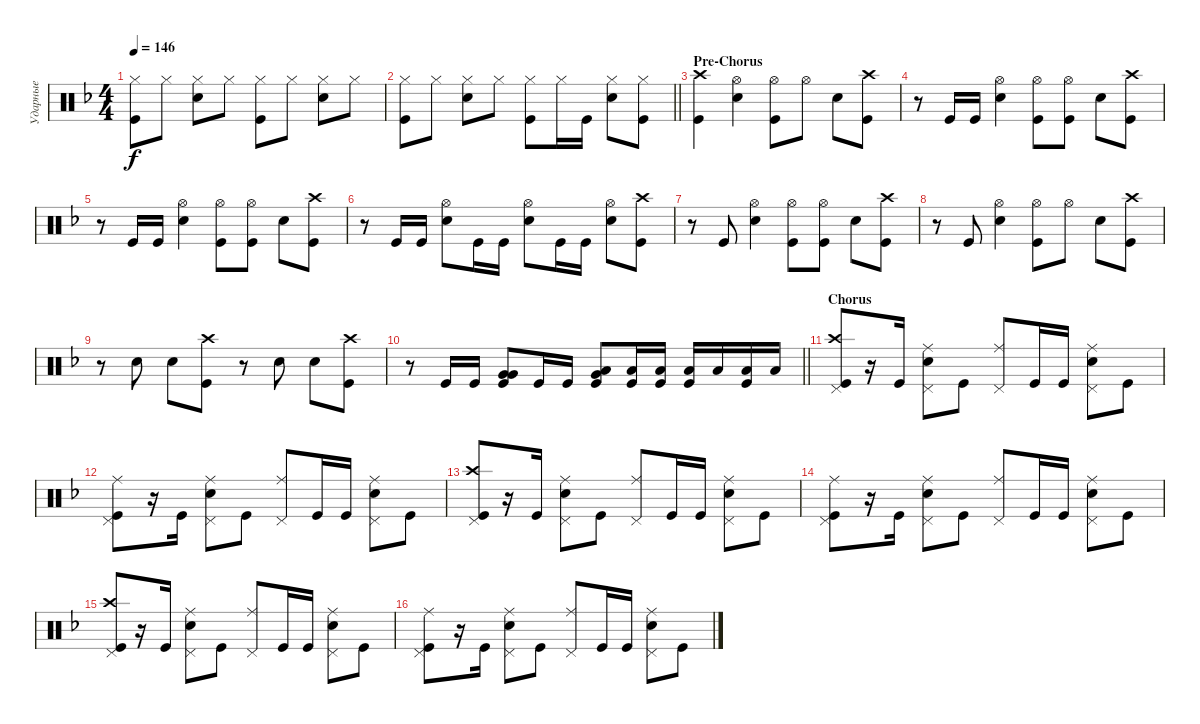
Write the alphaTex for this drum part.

\track ("Ударные" "Ударные") {instrument percussion}
\staff {score}
\articulation defaults
\ts (4 4)
\tempo 146
\clef neutral
\ks dminor
("Kick (hit)" "Hi-Hat (closed)").8{dy f} "Hi-Hat (closed)".8 ("Hi-Hat (closed)" "Snare (hit) 2").8 "Hi-Hat (closed)".8 ("Hi-Hat (closed)" "Kick (hit)").8 "Hi-Hat (closed)".8 ("Hi-Hat (closed)" "Snare (hit) 2").8 "Hi-Hat (closed)".8 |
\barLineRight lightlight
("Kick (hit)" "Hi-Hat (closed)").8 "Hi-Hat (closed)".8 ("Hi-Hat (closed)" "Snare (hit) 2").8 "Hi-Hat (closed)".8 ("Hi-Hat (closed)" "Kick (hit)").8 "Hi-Hat (closed)".16 "Kick (hit)".16 ("Hi-Hat (closed)" "Snare (hit) 2").8 ("Hi-Hat (closed)" "Kick (hit)").8 |
\section ("" "Pre-Chorus")
("Kick (hit)" "Crash high (hit)").4 ("Snare (hit) 2" "Hi-Hat (open)").4 ("Kick (hit)" "Hi-Hat (open)").8 "Hi-Hat (open)".8 "Snare (hit) 2".8 ("Kick (hit)" "Crash high (hit)").8 |
r.8 "Kick (hit)".16 "Kick (hit)".16 ("Snare (hit) 2" "Hi-Hat (open)").4 ("Kick (hit)" "Hi-Hat (open)").8 ("Kick (hit)" "Hi-Hat (open)").8 "Snare (hit) 2".8 ("Kick (hit)" "Crash high (hit)").8 |
r.8 "Kick (hit)".16 "Kick (hit)".16 ("Snare (hit) 2" "Hi-Hat (open)").4 ("Kick (hit)" "Hi-Hat (open)").8 ("Kick (hit)" "Hi-Hat (open)").8 "Snare (hit) 2".8 ("Kick (hit)" "Crash high (hit)").8 |
r.8 "Kick (hit)".16 "Kick (hit)".16 ("Snare (hit) 2" "Hi-Hat (open)").8 "Kick (hit)".16 "Kick (hit)".16 ("Snare (hit) 2" "Hi-Hat (open)").8 "Kick (hit)".16 "Kick (hit)".16 ("Snare (hit) 2" "Hi-Hat (open)").8 ("Kick (hit)" "Crash high (hit)").8 |
r.8 "Kick (hit)".8 ("Snare (hit) 2" "Hi-Hat (open)").4 ("Kick (hit)" "Hi-Hat (open)").8 ("Hi-Hat (open)" "Kick (hit)").8 "Snare (hit) 2".8 ("Kick (hit)" "Crash high (hit)").8 |
r.8 "Kick (hit)".8 ("Snare (hit) 2" "Hi-Hat (open)").4 ("Kick (hit)" "Hi-Hat (open)").8 "Hi-Hat (open)".8 "Snare (hit) 2".8 ("Kick (hit)" "Crash high (hit)").8 |
r.8 "Snare (hit) 2".8 "Snare (hit) 2".8 ("Kick (hit)" "Crash high (hit)").8 r.8 "Snare (hit) 2".8 "Snare (hit) 2".8 ("Kick (hit)" "Crash high (hit)").8 |
\barLineRight lightlight
r.8 "Kick (hit)".16 "Kick (hit)".16 ("Kick (hit)" "Very Low Tom (hit)" "Very Low Tom (hit)").8{bd 120} "Kick (hit)".16 "Kick (hit)".16{bd 120} ("Kick (hit)" "Very Low Tom (hit)" "Low Floor Tom (hit)").8{bd 60} ("Kick (hit)" "Low Floor Tom (hit)").16 ("Kick (hit)" "Low Floor Tom (hit)").16{bd 120} ("Low Floor Tom (hit)" "Kick (hit)").16 "Low Floor Tom (hit)".16{bd 120} ("Kick (hit)" "Low Floor Tom (hit)").16{bd 120} "Low Floor Tom (hit)".16 |
\section ("" "Chorus")
("Kick (hit)" "Pedal Hi-Hat (hit)" "Crash high (hit)").8 r.16 "Kick (hit)".16 ("Ride (middle)" "Snare (hit) 2" "Pedal Hi-Hat (hit)").8 "Kick (hit)".8 ("Pedal Hi-Hat (hit)" "Ride (middle)").8 "Kick (hit)".16 "Kick (hit)".16 ("Snare (hit) 2" "Pedal Hi-Hat (hit)" "Ride (middle)").8 "Kick (hit)".8 |
("Kick (hit)" "Pedal Hi-Hat (hit)" "Ride (middle)").8 r.16 "Kick (hit)".16 ("Ride (middle)" "Snare (hit) 2" "Pedal Hi-Hat (hit)").8 "Kick (hit)".8 ("Pedal Hi-Hat (hit)" "Ride (middle)").8 "Kick (hit)".16 "Kick (hit)".16 ("Snare (hit) 2" "Pedal Hi-Hat (hit)" "Ride (middle)").8 "Kick (hit)".8 |
("Kick (hit)" "Pedal Hi-Hat (hit)" "Crash high (hit)").8 r.16 "Kick (hit)".16 ("Ride (middle)" "Snare (hit) 2" "Pedal Hi-Hat (hit)").8 "Kick (hit)".8 ("Pedal Hi-Hat (hit)" "Ride (middle)").8 "Kick (hit)".16 "Kick (hit)".16 ("Snare (hit) 2" "Pedal Hi-Hat (hit)" "Ride (middle)").8 "Kick (hit)".8 |
("Kick (hit)" "Pedal Hi-Hat (hit)" "Ride (middle)").8 r.16 "Kick (hit)".16 ("Ride (middle)" "Snare (hit) 2" "Pedal Hi-Hat (hit)").8 "Kick (hit)".8 ("Pedal Hi-Hat (hit)" "Ride (middle)").8 "Kick (hit)".16 "Kick (hit)".16 ("Snare (hit) 2" "Pedal Hi-Hat (hit)" "Ride (middle)").8 "Kick (hit)".8 |
("Kick (hit)" "Pedal Hi-Hat (hit)" "Crash high (hit)").8 r.16 "Kick (hit)".16 ("Ride (middle)" "Snare (hit) 2" "Pedal Hi-Hat (hit)").8 "Kick (hit)".8 ("Pedal Hi-Hat (hit)" "Ride (middle)").8 "Kick (hit)".16 "Kick (hit)".16 ("Snare (hit) 2" "Pedal Hi-Hat (hit)" "Ride (middle)").8 "Kick (hit)".8 |
("Kick (hit)" "Pedal Hi-Hat (hit)" "Ride (middle)").8 r.16 "Kick (hit)".16 ("Ride (middle)" "Snare (hit) 2" "Pedal Hi-Hat (hit)").8 "Kick (hit)".8 ("Pedal Hi-Hat (hit)" "Ride (middle)").8 "Kick (hit)".16 "Kick (hit)".16 ("Snare (hit) 2" "Pedal Hi-Hat (hit)" "Ride (middle)").8 "Kick (hit)".8
